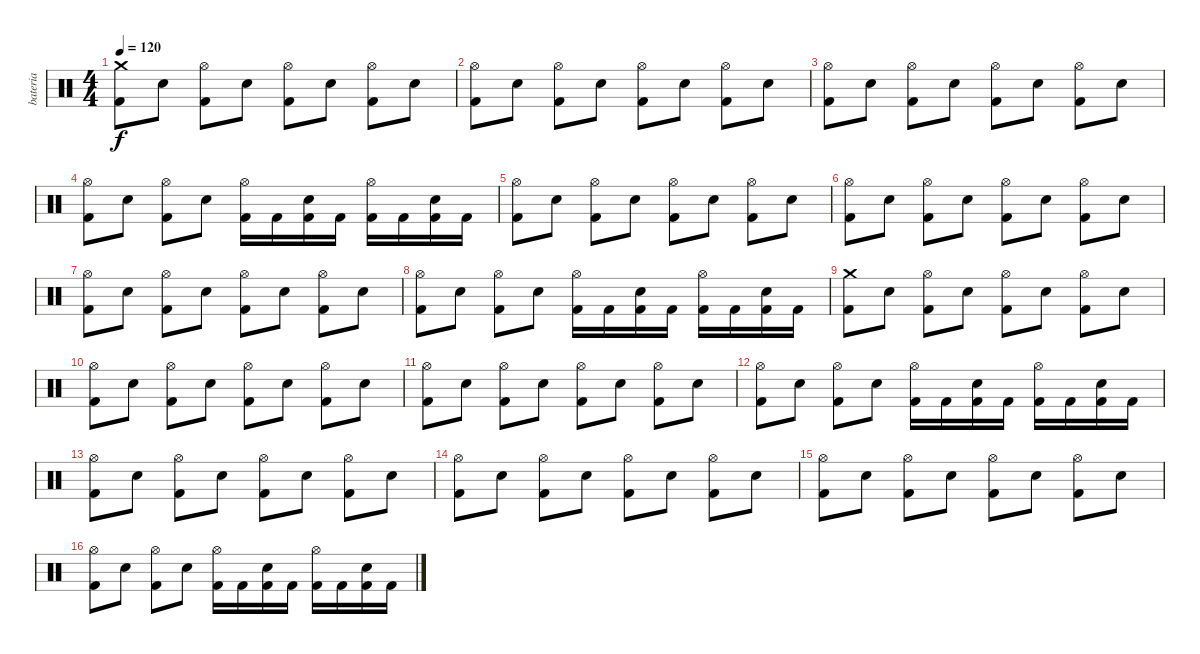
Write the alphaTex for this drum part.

\track ("bateria" "bateria") {instrument percussion}
\staff {score}
\articulation defaults
\ts (4 4)
\tempo 120
\clef neutral
\ks c
("Crash medium (hit)" "Kick (hit) 2").8{dy f} "Electric Snare (hit)".8 ("Hi-Hat (open)" "Kick (hit) 2").8 "Electric Snare (hit)".8 ("Hi-Hat (open)" "Kick (hit) 2").8 "Electric Snare (hit)".8 ("Hi-Hat (open)" "Kick (hit) 2").8 "Electric Snare (hit)".8 |
("Hi-Hat (open)" "Kick (hit) 2").8 "Electric Snare (hit)".8 ("Hi-Hat (open)" "Kick (hit) 2").8 "Electric Snare (hit)".8 ("Hi-Hat (open)" "Kick (hit) 2").8 "Electric Snare (hit)".8 ("Hi-Hat (open)" "Kick (hit) 2").8 "Electric Snare (hit)".8 |
("Hi-Hat (open)" "Kick (hit) 2").8 "Electric Snare (hit)".8 ("Hi-Hat (open)" "Kick (hit) 2").8 "Electric Snare (hit)".8 ("Hi-Hat (open)" "Kick (hit) 2").8 "Electric Snare (hit)".8 ("Hi-Hat (open)" "Kick (hit) 2").8 "Electric Snare (hit)".8 |
("Hi-Hat (open)" "Kick (hit) 2").8 "Electric Snare (hit)".8 ("Hi-Hat (open)" "Kick (hit) 2").8 "Electric Snare (hit)".8 ("Hi-Hat (open)" "Kick (hit) 2").16 "Kick (hit) 2".16 ("Electric Snare (hit)" "Kick (hit) 2").16 "Kick (hit) 2".16 ("Hi-Hat (open)" "Kick (hit) 2").16 "Kick (hit) 2".16 ("Electric Snare (hit)" "Kick (hit) 2").16 "Kick (hit) 2".16 |
("Hi-Hat (open)" "Kick (hit) 2").8 "Electric Snare (hit)".8 ("Hi-Hat (open)" "Kick (hit) 2").8 "Electric Snare (hit)".8 ("Hi-Hat (open)" "Kick (hit) 2").8 "Electric Snare (hit)".8 ("Hi-Hat (open)" "Kick (hit) 2").8 "Electric Snare (hit)".8 |
("Hi-Hat (open)" "Kick (hit) 2").8 "Electric Snare (hit)".8 ("Hi-Hat (open)" "Kick (hit) 2").8 "Electric Snare (hit)".8 ("Hi-Hat (open)" "Kick (hit) 2").8 "Electric Snare (hit)".8 ("Hi-Hat (open)" "Kick (hit) 2").8 "Electric Snare (hit)".8 |
("Hi-Hat (open)" "Kick (hit) 2").8 "Electric Snare (hit)".8 ("Hi-Hat (open)" "Kick (hit) 2").8 "Electric Snare (hit)".8 ("Hi-Hat (open)" "Kick (hit) 2").8 "Electric Snare (hit)".8 ("Hi-Hat (open)" "Kick (hit) 2").8 "Electric Snare (hit)".8 |
("Hi-Hat (open)" "Kick (hit) 2").8 "Electric Snare (hit)".8 ("Hi-Hat (open)" "Kick (hit) 2").8 "Electric Snare (hit)".8 ("Hi-Hat (open)" "Kick (hit) 2").16 "Kick (hit) 2".16 ("Electric Snare (hit)" "Kick (hit) 2").16 "Kick (hit) 2".16 ("Hi-Hat (open)" "Kick (hit) 2").16 "Kick (hit) 2".16 ("Electric Snare (hit)" "Kick (hit) 2").16 "Kick (hit) 2".16 |
("Crash medium (hit)" "Kick (hit) 2").8 "Electric Snare (hit)".8 ("Hi-Hat (open)" "Kick (hit) 2").8 "Electric Snare (hit)".8 ("Hi-Hat (open)" "Kick (hit) 2").8 "Electric Snare (hit)".8 ("Hi-Hat (open)" "Kick (hit) 2").8 "Electric Snare (hit)".8 |
("Hi-Hat (open)" "Kick (hit) 2").8 "Electric Snare (hit)".8 ("Hi-Hat (open)" "Kick (hit) 2").8 "Electric Snare (hit)".8 ("Hi-Hat (open)" "Kick (hit) 2").8 "Electric Snare (hit)".8 ("Hi-Hat (open)" "Kick (hit) 2").8 "Electric Snare (hit)".8 |
("Hi-Hat (open)" "Kick (hit) 2").8 "Electric Snare (hit)".8 ("Hi-Hat (open)" "Kick (hit) 2").8 "Electric Snare (hit)".8 ("Hi-Hat (open)" "Kick (hit) 2").8 "Electric Snare (hit)".8 ("Hi-Hat (open)" "Kick (hit) 2").8 "Electric Snare (hit)".8 |
("Hi-Hat (open)" "Kick (hit) 2").8 "Electric Snare (hit)".8 ("Hi-Hat (open)" "Kick (hit) 2").8 "Electric Snare (hit)".8 ("Hi-Hat (open)" "Kick (hit) 2").16 "Kick (hit) 2".16 ("Electric Snare (hit)" "Kick (hit) 2").16 "Kick (hit) 2".16 ("Hi-Hat (open)" "Kick (hit) 2").16 "Kick (hit) 2".16 ("Electric Snare (hit)" "Kick (hit) 2").16 "Kick (hit) 2".16 |
("Hi-Hat (open)" "Kick (hit) 2").8 "Electric Snare (hit)".8 ("Hi-Hat (open)" "Kick (hit) 2").8 "Electric Snare (hit)".8 ("Hi-Hat (open)" "Kick (hit) 2").8 "Electric Snare (hit)".8 ("Hi-Hat (open)" "Kick (hit) 2").8 "Electric Snare (hit)".8 |
("Hi-Hat (open)" "Kick (hit) 2").8 "Electric Snare (hit)".8 ("Hi-Hat (open)" "Kick (hit) 2").8 "Electric Snare (hit)".8 ("Hi-Hat (open)" "Kick (hit) 2").8 "Electric Snare (hit)".8 ("Hi-Hat (open)" "Kick (hit) 2").8 "Electric Snare (hit)".8 |
("Hi-Hat (open)" "Kick (hit) 2").8 "Electric Snare (hit)".8 ("Hi-Hat (open)" "Kick (hit) 2").8 "Electric Snare (hit)".8 ("Hi-Hat (open)" "Kick (hit) 2").8 "Electric Snare (hit)".8 ("Hi-Hat (open)" "Kick (hit) 2").8 "Electric Snare (hit)".8 |
("Hi-Hat (open)" "Kick (hit) 2").8 "Electric Snare (hit)".8 ("Hi-Hat (open)" "Kick (hit) 2").8 "Electric Snare (hit)".8 ("Hi-Hat (open)" "Kick (hit) 2").16 "Kick (hit) 2".16 ("Electric Snare (hit)" "Kick (hit) 2").16 "Kick (hit) 2".16 ("Hi-Hat (open)" "Kick (hit) 2").16 "Kick (hit) 2".16 ("Electric Snare (hit)" "Kick (hit) 2").16 "Kick (hit) 2".16
